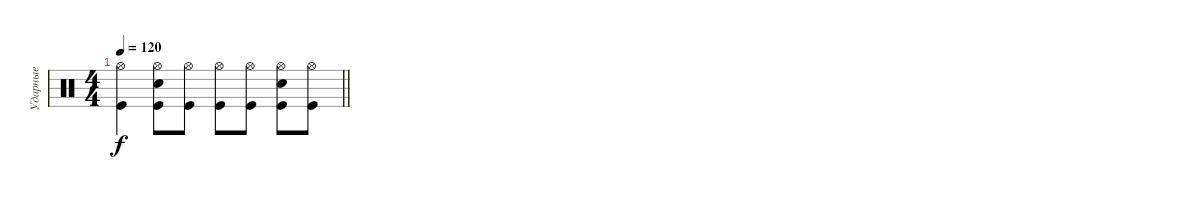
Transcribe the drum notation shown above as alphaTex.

\track ("Ударные" "Ударные") {instrument percussion}
\staff {score}
\articulation defaults
\ts (4 4)
\tempo 120
\clef neutral
\barLineRight lightlight
\ks c
("Hi-Hat (open)" "Kick (hit)").4{dy f} ("Hi-Hat (open)" "Snare (hit) 2" "Kick (hit)").8 ("Hi-Hat (open)" "Kick (hit)").8 ("Hi-Hat (open)" "Kick (hit)").8 ("Hi-Hat (open)" "Kick (hit)").8 ("Hi-Hat (open)" "Snare (hit) 2" "Kick (hit)").8 ("Hi-Hat (open)" "Kick (hit)").8
